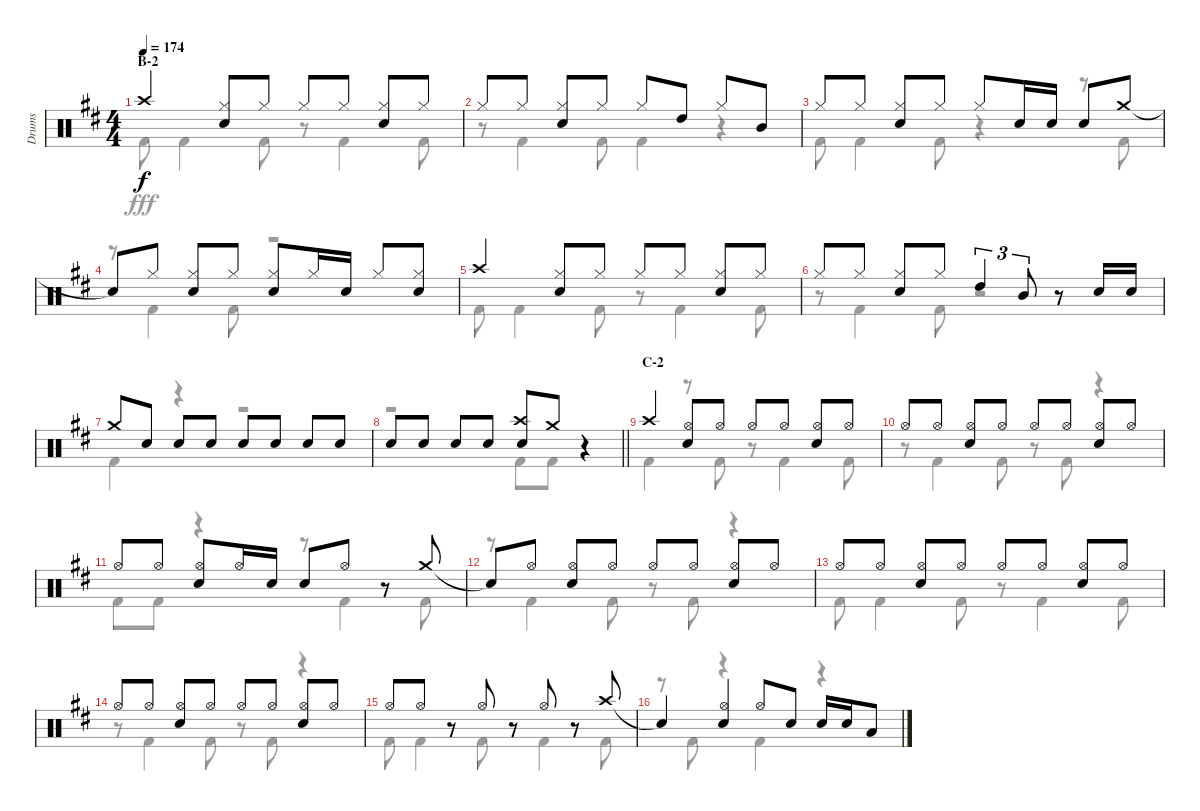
\track ("Drums" "Drums") {instrument percussion}
\staff {score}
\articulation defaults
\voice
\ts (4 4)
\section ("" "B-2")
\tempo 174
\clef neutral
\ks bminor "Crash high (hit)".4{dy f}
("Hi-Hat (closed)" "Snare (hit) 2").8 "Hi-Hat (closed)".8 "Hi-Hat (closed)".8 "Hi-Hat (closed)".8 ("Hi-Hat (closed)" "Snare (hit) 2").8 "Hi-Hat (closed)".8 |
"Hi-Hat (closed)".8 "Hi-Hat (closed)".8 ("Hi-Hat (closed)" "Snare (hit) 2").8 "Hi-Hat (closed)".8 "Hi-Hat (closed)".8 "High Tom (hit)".8 "Hi-Hat (closed)".8 "Mid Tom (hit)".8 |
"Hi-Hat (closed)".8 "Hi-Hat (closed)".8 ("Hi-Hat (closed)" "Snare (hit) 2").8 "Hi-Hat (closed)".8 "Hi-Hat (closed)".8 "Snare (hit) 2".16 "Snare (hit) 2".16 "Snare (hit) 2".8 "Crash medium (hit)".8 |
"Snare (hit)"{t}.8 "Hi-Hat (closed)".8 ("Hi-Hat (closed)" "Snare (hit) 2").8 "Hi-Hat (closed)".8 ("Hi-Hat (closed)" "Snare (hit) 2").8 "Hi-Hat (closed)".16 "Snare (hit) 2".16 "Hi-Hat (closed)".8 ("Hi-Hat (closed)" "Snare (hit) 2").8 |
"Crash high (hit)".4 ("Hi-Hat (closed)" "Snare (hit) 2").8 "Hi-Hat (closed)".8 "Hi-Hat (closed)".8 "Hi-Hat (closed)".8 ("Hi-Hat (closed)" "Snare (hit) 2").8 "Hi-Hat (closed)".8 |
"Hi-Hat (closed)".8 "Hi-Hat (closed)".8 ("Hi-Hat (closed)" "Snare (hit) 2").8 "Hi-Hat (closed)".8 "High Tom (hit)".4{tu (3 2)} "Mid Tom (hit)".8{tu (3 2)} r.8 "Snare (hit) 2".16 "Snare (hit) 2".16 |
"Crash medium (hit)".8 "Snare (hit) 2".8 "Snare (hit) 2".8 "Snare (hit) 2".8 "Snare (hit) 2".8 "Snare (hit) 2".8 "Snare (hit) 2".8 "Snare (hit) 2".8 |
\barLineRight lightlight "Snare (hit) 2".8 "Snare (hit) 2".8 "Snare (hit) 2".8 "Snare (hit) 2".8
("Crash high (hit)" "Snare (hit) 2").8 "Crash medium (hit)".8 r.4 |
\section ("" "C-2")
"Crash high (hit)".4 ("Hi-Hat (open)" "Snare (hit) 2").8 "Hi-Hat (open)".8 "Hi-Hat (open)".8 "Hi-Hat (open)".8 ("Hi-Hat (open)" "Snare (hit) 2").8 "Hi-Hat (open)".8 |
"Hi-Hat (open)".8 "Hi-Hat (open)".8 ("Hi-Hat (open)" "Snare (hit) 2").8 "Hi-Hat (open)".8 "Hi-Hat (open)".8 "Hi-Hat (open)".8 ("Hi-Hat (open)" "Snare (hit) 2").8 "Hi-Hat (open)".8 |
"Hi-Hat (open)".8 "Hi-Hat (open)".8 ("Hi-Hat (open)" "Snare (hit) 2").8 "Hi-Hat (open)".16 "Snare (hit) 2".16 "Snare (hit) 2".8 "Hi-Hat (open)".8 r.8 "Crash medium (hit)".8 |
"Snare (hit)"{t}.8 "Hi-Hat (open)".8 ("Hi-Hat (open)" "Snare (hit) 2").8 "Hi-Hat (open)".8 "Hi-Hat (open)".8 "Hi-Hat (open)".8 ("Hi-Hat (open)" "Snare (hit) 2").8 "Hi-Hat (open)".8 |
"Hi-Hat (open)".8 "Hi-Hat (open)".8 ("Hi-Hat (open)" "Snare (hit) 2").8 "Hi-Hat (open)".8 "Hi-Hat (open)".8 "Hi-Hat (open)".8 ("Hi-Hat (open)" "Snare (hit) 2").8 "Hi-Hat (open)".8 |
"Hi-Hat (open)".8 "Hi-Hat (open)".8 ("Hi-Hat (open)" "Snare (hit) 2").8 "Hi-Hat (open)".8 "Hi-Hat (open)".8 "Hi-Hat (open)".8 ("Hi-Hat (open)" "Snare (hit) 2").8 "Hi-Hat (open)".8 |
"Hi-Hat (open)".8 "Hi-Hat (open)".8 r.8 "Hi-Hat (open)".8 r.8 "Hi-Hat (open)".8 r.8 "Crash high (hit)".8 |
"Snare (hit)"{t}.4 ("Hi-Hat (open)" "Snare (hit) 2").4 "Hi-Hat (open)".8 "Snare (hit) 2".8 "Snare (hit) 2".16 "Snare (hit) 2".16 "Low Tom (hit)".8
\voice
\clef neutral
\ottava regular
\simile none
\ks bminor "Kick (hit) 2".8{dy fff} "Kick (hit) 2".4 "Kick (hit) 2".8
r.8 "Kick (hit) 2".4 "Kick (hit) 2".8 |
r.8 "Kick (hit) 2".4 "Kick (hit) 2".8 "Kick (hit) 2".4 r.4 |
"Kick (hit) 2".8 "Kick (hit) 2".4 "Kick (hit) 2".8 r.4 r.8 "Kick (hit) 2".8 |
r.8 "Kick (hit) 2".4 "Kick (hit) 2".8 r.2 |
"Kick (hit) 2".8 "Kick (hit) 2".4 "Kick (hit) 2".8 r.8 "Kick (hit) 2".4 "Kick (hit) 2".8 |
r.8 "Kick (hit) 2".4 "Kick (hit) 2".8 r.2 |
"Kick (hit) 2".4 r.4 r.2 |
\barLineRight lightlight
r.2 "Kick (hit) 2".8 "Kick (hit) 2".8 r.4 |
"Kick (hit) 2".4 r.8 "Kick (hit) 2".8 r.8 "Kick (hit) 2".4 "Kick (hit) 2".8 |
r.8 "Kick (hit) 2".4 "Kick (hit) 2".8 r.8 "Kick (hit) 2".8 r.4 |
"Kick (hit) 2".8 "Kick (hit) 2".8 r.4 r.8 "Kick (hit) 2".4 "Kick (hit) 2".8 |
r.8 "Kick (hit) 2".4 "Kick (hit) 2".8 r.8 "Kick (hit) 2".8 r.4 |
"Kick (hit) 2".8 "Kick (hit) 2".4 "Kick (hit) 2".8 r.8 "Kick (hit) 2".4 "Kick (hit) 2".8 |
r.8 "Kick (hit) 2".4 "Kick (hit) 2".8 r.8 "Kick (hit) 2".8 r.4 |
"Kick (hit) 2".8 "Kick (hit) 2".4 "Kick (hit) 2".8 r.8 "Kick (hit) 2".4 "Kick (hit) 2".8 |
r.8 "Kick (hit) 2".8 r.4 "Kick (hit) 2".4 r.4
